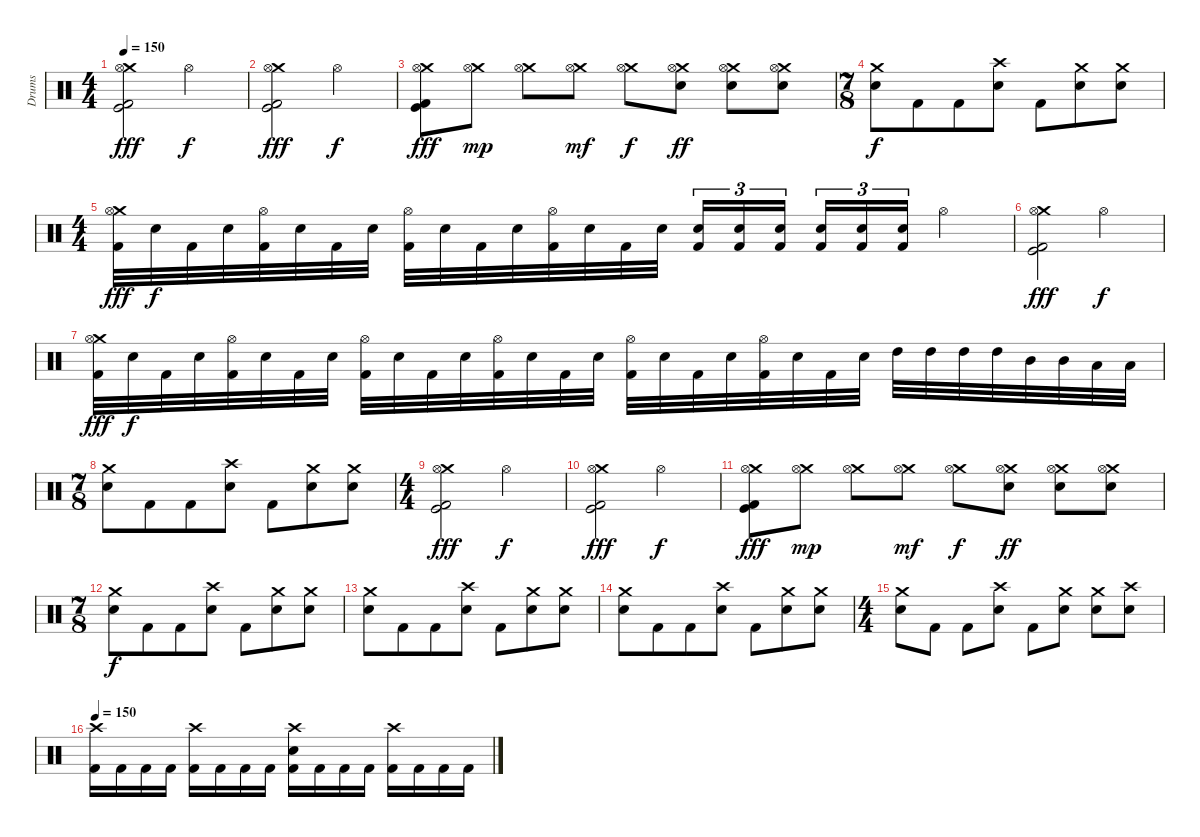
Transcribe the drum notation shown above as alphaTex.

\track ("Drums" "Drums") {instrument percussion}
\staff {score}
\articulation defaults
\ts (4 4)
\tempo 150
\clef neutral
\ks c
("Crash medium (hit)" "Hi-Hat (open)" "Kick (hit)" "Kick (hit) 2").2{dy fff} "Hi-Hat (open)".2{dy f} |
("Crash medium (hit)" "Hi-Hat (open)" "Kick (hit)" "Kick (hit) 2").2{dy fff} "Hi-Hat (open)".2{dy f} |
("Crash medium (hit)" "Hi-Hat (open)" "Kick (hit)" "Kick (hit) 2").8{dy fff} ("Crash medium (hit)" "Hi-Hat (open)").8{dy mp} ("Crash medium (hit)" "Hi-Hat (open)").8 ("Crash medium (hit)" "Hi-Hat (open)").8{dy mf} ("Crash medium (hit)" "Hi-Hat (open)").8{dy f} ("Crash medium (hit)" "Hi-Hat (open)" "Electric Snare (hit)").8{dy ff} ("Crash medium (hit)" "Hi-Hat (open)" "Electric Snare (hit)").8 ("Crash medium (hit)" "Hi-Hat (open)" "Electric Snare (hit)").8 |
\ts (7 8)
("Crash medium (hit)" "Electric Snare (hit)").8{dy f} "Kick (hit) 2".8 "Kick (hit) 2".8 ("Crash high (hit)" "Electric Snare (hit)").8 "Kick (hit) 2".8 ("Crash medium (hit)" "Electric Snare (hit)").8 ("Crash medium (hit)" "Electric Snare (hit)").8 |
\ts (4 4)
("Crash medium (hit)" "Hi-Hat (open)" "Kick (hit) 2").32{dy fff} "Electric Snare (hit)".32{dy f} "Kick (hit) 2".32 "Electric Snare (hit)".32 ("Hi-Hat (open)" "Kick (hit) 2").32 "Electric Snare (hit)".32 "Kick (hit) 2".32 "Electric Snare (hit)".32 ("Hi-Hat (open)" "Kick (hit) 2").32 "Electric Snare (hit)".32 "Kick (hit) 2".32 "Electric Snare (hit)".32 ("Hi-Hat (open)" "Kick (hit) 2").32 "Electric Snare (hit)".32 "Kick (hit) 2".32 "Electric Snare (hit)".32 ("Electric Snare (hit)" "Kick (hit) 2").16{tu (3 2)} ("Electric Snare (hit)" "Kick (hit) 2").16{tu (3 2)} ("Electric Snare (hit)" "Kick (hit) 2").16{tu (3 2)} ("Electric Snare (hit)" "Kick (hit) 2").16{tu (3 2)} ("Electric Snare (hit)" "Kick (hit) 2").16{tu (3 2)} ("Electric Snare (hit)" "Kick (hit) 2").16{tu (3 2)} "Hi-Hat (open)".4 |
("Crash medium (hit)" "Hi-Hat (open)" "Kick (hit)" "Kick (hit) 2").2{dy fff} "Hi-Hat (open)".2{dy f} |
("Crash medium (hit)" "Hi-Hat (open)" "Kick (hit) 2").32{dy fff} "Electric Snare (hit)".32{dy f} "Kick (hit) 2".32 "Electric Snare (hit)".32 ("Hi-Hat (open)" "Kick (hit) 2").32 "Electric Snare (hit)".32 "Kick (hit) 2".32 "Electric Snare (hit)".32 ("Hi-Hat (open)" "Kick (hit) 2").32 "Electric Snare (hit)".32 "Kick (hit) 2".32 "Electric Snare (hit)".32 ("Hi-Hat (open)" "Kick (hit) 2").32 "Electric Snare (hit)".32 "Kick (hit) 2".32 "Electric Snare (hit)".32 ("Hi-Hat (open)" "Kick (hit) 2").32 "Electric Snare (hit)".32 "Kick (hit) 2".32 "Electric Snare (hit)".32 ("Hi-Hat (open)" "Kick (hit) 2").32 "Electric Snare (hit)".32 "Kick (hit) 2".32 "Electric Snare (hit)".32 "High Tom (hit)".32 "High Tom (hit)".32 "High Tom (hit)".32 "High Tom (hit)".32 "Mid Tom (hit)".32 "Mid Tom (hit)".32 "Low Tom (hit)".32 "Low Tom (hit)".32 |
\ts (7 8)
("Crash medium (hit)" "Electric Snare (hit)").8 "Kick (hit) 2".8 "Kick (hit) 2".8 ("Crash high (hit)" "Electric Snare (hit)").8 "Kick (hit) 2".8 ("Crash medium (hit)" "Electric Snare (hit)").8 ("Crash medium (hit)" "Electric Snare (hit)").8 |
\ts (4 4)
("Crash medium (hit)" "Hi-Hat (open)" "Kick (hit)" "Kick (hit) 2").2{dy fff} "Hi-Hat (open)".2{dy f} |
("Crash medium (hit)" "Hi-Hat (open)" "Kick (hit)" "Kick (hit) 2").2{dy fff} "Hi-Hat (open)".2{dy f} |
("Crash medium (hit)" "Hi-Hat (open)" "Kick (hit)" "Kick (hit) 2").8{dy fff} ("Crash medium (hit)" "Hi-Hat (open)").8{dy mp} ("Crash medium (hit)" "Hi-Hat (open)").8 ("Crash medium (hit)" "Hi-Hat (open)").8{dy mf} ("Crash medium (hit)" "Hi-Hat (open)").8{dy f} ("Crash medium (hit)" "Hi-Hat (open)" "Electric Snare (hit)").8{dy ff} ("Crash medium (hit)" "Hi-Hat (open)" "Electric Snare (hit)").8 ("Crash medium (hit)" "Hi-Hat (open)" "Electric Snare (hit)").8 |
\ts (7 8)
("Crash medium (hit)" "Electric Snare (hit)").8{dy f} "Kick (hit) 2".8 "Kick (hit) 2".8 ("Crash high (hit)" "Electric Snare (hit)").8 "Kick (hit) 2".8 ("Crash medium (hit)" "Electric Snare (hit)").8 ("Crash medium (hit)" "Electric Snare (hit)").8 |
("Crash medium (hit)" "Electric Snare (hit)").8 "Kick (hit) 2".8 "Kick (hit) 2".8 ("Crash high (hit)" "Electric Snare (hit)").8 "Kick (hit) 2".8 ("Crash medium (hit)" "Electric Snare (hit)").8 ("Crash medium (hit)" "Electric Snare (hit)").8 |
("Crash medium (hit)" "Electric Snare (hit)").8 "Kick (hit) 2".8 "Kick (hit) 2".8 ("Crash high (hit)" "Electric Snare (hit)").8 "Kick (hit) 2".8 ("Crash medium (hit)" "Electric Snare (hit)").8 ("Crash medium (hit)" "Electric Snare (hit)").8 |
\ts (4 4)
("Crash medium (hit)" "Electric Snare (hit)").8 "Kick (hit) 2".8 "Kick (hit) 2".8 ("Crash high (hit)" "Electric Snare (hit)").8 "Kick (hit) 2".8 ("Crash medium (hit)" "Electric Snare (hit)").8 ("Crash medium (hit)" "Electric Snare (hit)").8 ("Crash high (hit)" "Electric Snare (hit)").8 |
\tempo 150
("Crash high (hit)" "Kick (hit) 2").16 "Kick (hit) 2".16 "Kick (hit) 2".16 "Kick (hit) 2".16 ("Crash high (hit)" "Kick (hit) 2").16 "Kick (hit) 2".16 "Kick (hit) 2".16 "Kick (hit) 2".16 ("Crash high (hit)" "Electric Snare (hit)" "Kick (hit) 2").16 "Kick (hit) 2".16 "Kick (hit) 2".16 "Kick (hit) 2".16 ("Crash high (hit)" "Kick (hit) 2").16 "Kick (hit) 2".16 "Kick (hit) 2".16 "Kick (hit) 2".16
